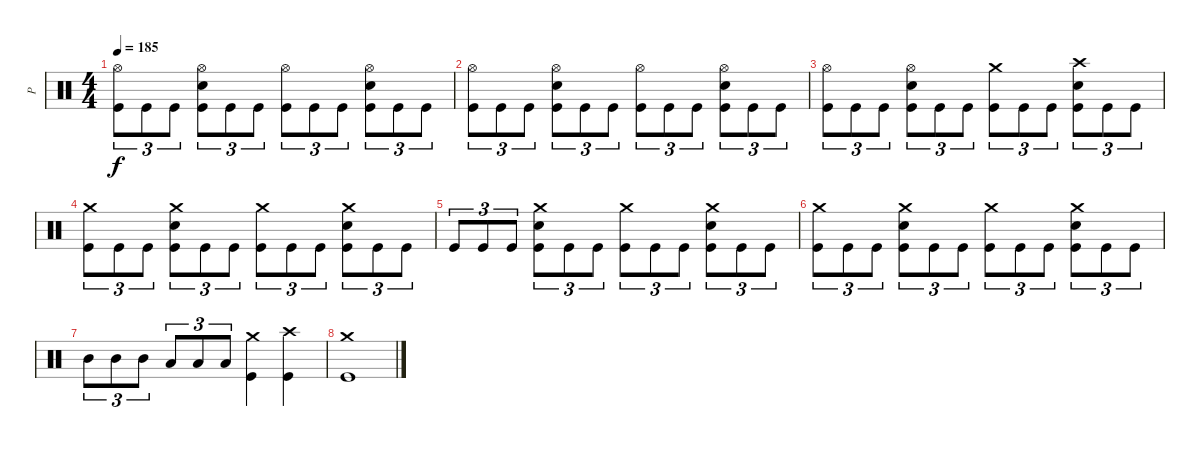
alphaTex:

\track ("P" "P") {instrument percussion}
\staff {score}
\articulation defaults
\ts (4 4)
\tempo 185
\clef neutral
\ks c
("Hi-Hat (open)" "Kick (hit)").8{tu (3 2) dy f} "Kick (hit)".8{tu (3 2)} "Kick (hit)".8{tu (3 2)} ("Hi-Hat (open)" "Electric Snare (hit)" "Kick (hit)").8{tu (3 2)} "Kick (hit)".8{tu (3 2)} "Kick (hit)".8{tu (3 2)} ("Hi-Hat (open)" "Kick (hit)").8{tu (3 2)} "Kick (hit)".8{tu (3 2)} "Kick (hit)".8{tu (3 2)} ("Hi-Hat (open)" "Electric Snare (hit)" "Kick (hit)").8{tu (3 2)} "Kick (hit)".8{tu (3 2)} "Kick (hit)".8{tu (3 2)} |
("Hi-Hat (open)" "Kick (hit)").8{tu (3 2)} "Kick (hit)".8{tu (3 2)} "Kick (hit)".8{tu (3 2)} ("Hi-Hat (open)" "Electric Snare (hit)" "Kick (hit)").8{tu (3 2)} "Kick (hit)".8{tu (3 2)} "Kick (hit)".8{tu (3 2)} ("Hi-Hat (open)" "Kick (hit)").8{tu (3 2)} "Kick (hit)".8{tu (3 2)} "Kick (hit)".8{tu (3 2)} ("Hi-Hat (open)" "Electric Snare (hit)" "Kick (hit)").8{tu (3 2)} "Kick (hit)".8{tu (3 2)} "Kick (hit)".8{tu (3 2)} |
("Hi-Hat (open)" "Kick (hit)").8{tu (3 2)} "Kick (hit)".8{tu (3 2)} "Kick (hit)".8{tu (3 2)} ("Hi-Hat (open)" "Electric Snare (hit)" "Kick (hit)").8{tu (3 2)} "Kick (hit)".8{tu (3 2)} "Kick (hit)".8{tu (3 2)} ("Crash medium (hit)" "Kick (hit)").8{tu (3 2)} "Kick (hit)".8{tu (3 2)} "Kick (hit)".8{tu (3 2)} ("Crash high (hit)" "Electric Snare (hit)" "Kick (hit)").8{tu (3 2)} "Kick (hit)".8{tu (3 2)} "Kick (hit)".8{tu (3 2)} |
("Crash medium (hit)" "Kick (hit)").8{tu (3 2)} "Kick (hit)".8{tu (3 2)} "Kick (hit)".8{tu (3 2)} ("Crash medium (hit)" "Electric Snare (hit)" "Kick (hit)").8{tu (3 2)} "Kick (hit)".8{tu (3 2)} "Kick (hit)".8{tu (3 2)} ("Crash medium (hit)" "Kick (hit)").8{tu (3 2)} "Kick (hit)".8{tu (3 2)} "Kick (hit)".8{tu (3 2)} ("Crash medium (hit)" "Electric Snare (hit)" "Kick (hit)").8{tu (3 2)} "Kick (hit)".8{tu (3 2)} "Kick (hit)".8{tu (3 2)} |
"Kick (hit)".8{tu (3 2)} "Kick (hit)".8{tu (3 2)} "Kick (hit)".8{tu (3 2)} ("Crash medium (hit)" "Electric Snare (hit)" "Kick (hit)").8{tu (3 2)} "Kick (hit)".8{tu (3 2)} "Kick (hit)".8{tu (3 2)} ("Crash medium (hit)" "Kick (hit)").8{tu (3 2)} "Kick (hit)".8{tu (3 2)} "Kick (hit)".8{tu (3 2)} ("Crash medium (hit)" "Electric Snare (hit)" "Kick (hit)").8{tu (3 2)} "Kick (hit)".8{tu (3 2)} "Kick (hit)".8{tu (3 2)} |
("Crash medium (hit)" "Kick (hit)").8{tu (3 2)} "Kick (hit)".8{tu (3 2)} "Kick (hit)".8{tu (3 2)} ("Crash medium (hit)" "Electric Snare (hit)" "Kick (hit)").8{tu (3 2)} "Kick (hit)".8{tu (3 2)} "Kick (hit)".8{tu (3 2)} ("Crash medium (hit)" "Kick (hit)").8{tu (3 2)} "Kick (hit)".8{tu (3 2)} "Kick (hit)".8{tu (3 2)} ("Crash medium (hit)" "Electric Snare (hit)" "Kick (hit)").8{tu (3 2)} "Kick (hit)".8{tu (3 2)} "Kick (hit)".8{tu (3 2)} |
"Mid Tom (hit)".8{tu (3 2)} "Mid Tom (hit)".8{tu (3 2)} "Mid Tom (hit)".8{tu (3 2)} "Low Tom (hit)".8{tu (3 2)} "Low Tom (hit)".8{tu (3 2)} "Low Tom (hit)".8{tu (3 2)} ("Crash medium (hit)" "Kick (hit)").4 ("Crash high (hit)" "Kick (hit)").4 |
("Crash medium (hit)" "Kick (hit)").1
